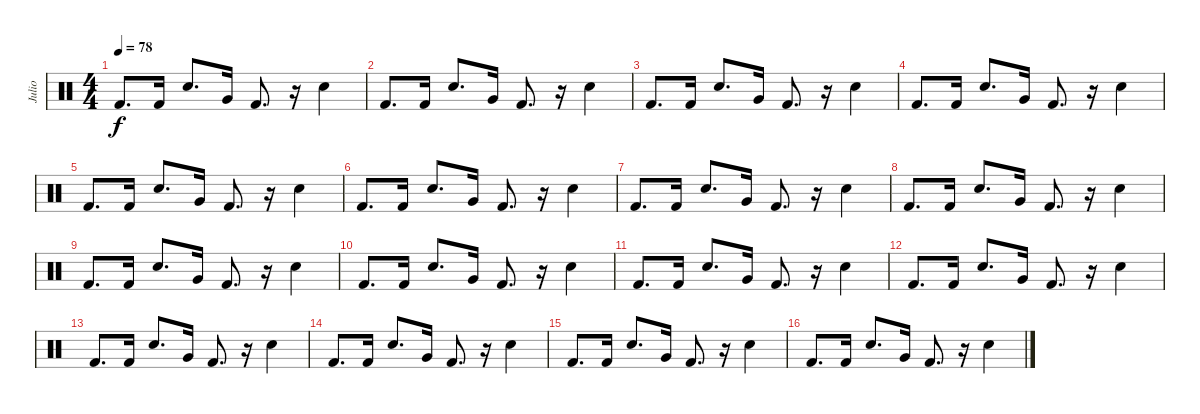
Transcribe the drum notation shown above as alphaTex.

\track ("Julio" "Julio") {instrument percussion}
\staff {score}
\articulation defaults
\ts (4 4)
\tempo 78
\clef neutral
\ks c "Kick (hit) 2".8{d dy f} "Kick (hit) 2".16 "Electric Snare (hit)".8{d} "Very Low Tom (hit)".16 "Kick (hit) 2".8{d}
r.16 "Electric Snare (hit)".4 |
"Kick (hit) 2".8{d} "Kick (hit) 2".16 "Electric Snare (hit)".8{d} "Very Low Tom (hit)".16 "Kick (hit) 2".8{d} r.16 "Electric Snare (hit)".4 |
"Kick (hit) 2".8{d} "Kick (hit) 2".16 "Electric Snare (hit)".8{d} "Very Low Tom (hit)".16 "Kick (hit) 2".8{d} r.16 "Electric Snare (hit)".4 |
"Kick (hit) 2".8{d} "Kick (hit) 2".16 "Electric Snare (hit)".8{d} "Very Low Tom (hit)".16 "Kick (hit) 2".8{d} r.16 "Electric Snare (hit)".4 |
"Kick (hit) 2".8{d} "Kick (hit) 2".16 "Electric Snare (hit)".8{d} "Very Low Tom (hit)".16 "Kick (hit) 2".8{d} r.16 "Electric Snare (hit)".4 |
"Kick (hit) 2".8{d} "Kick (hit) 2".16 "Electric Snare (hit)".8{d} "Very Low Tom (hit)".16 "Kick (hit) 2".8{d} r.16 "Electric Snare (hit)".4 |
"Kick (hit) 2".8{d} "Kick (hit) 2".16 "Electric Snare (hit)".8{d} "Very Low Tom (hit)".16 "Kick (hit) 2".8{d} r.16 "Electric Snare (hit)".4 |
"Kick (hit) 2".8{d} "Kick (hit) 2".16 "Electric Snare (hit)".8{d} "Very Low Tom (hit)".16 "Kick (hit) 2".8{d} r.16 "Electric Snare (hit)".4 |
"Kick (hit) 2".8{d} "Kick (hit) 2".16 "Electric Snare (hit)".8{d} "Very Low Tom (hit)".16 "Kick (hit) 2".8{d} r.16 "Electric Snare (hit)".4 |
"Kick (hit) 2".8{d} "Kick (hit) 2".16 "Electric Snare (hit)".8{d} "Very Low Tom (hit)".16 "Kick (hit) 2".8{d} r.16 "Electric Snare (hit)".4 |
"Kick (hit) 2".8{d} "Kick (hit) 2".16 "Electric Snare (hit)".8{d} "Very Low Tom (hit)".16 "Kick (hit) 2".8{d} r.16 "Electric Snare (hit)".4 |
"Kick (hit) 2".8{d} "Kick (hit) 2".16 "Electric Snare (hit)".8{d} "Very Low Tom (hit)".16 "Kick (hit) 2".8{d} r.16 "Electric Snare (hit)".4 |
"Kick (hit) 2".8{d} "Kick (hit) 2".16 "Electric Snare (hit)".8{d} "Very Low Tom (hit)".16 "Kick (hit) 2".8{d} r.16 "Electric Snare (hit)".4 |
"Kick (hit) 2".8{d} "Kick (hit) 2".16 "Electric Snare (hit)".8{d} "Very Low Tom (hit)".16 "Kick (hit) 2".8{d} r.16 "Electric Snare (hit)".4 |
"Kick (hit) 2".8{d} "Kick (hit) 2".16 "Electric Snare (hit)".8{d} "Very Low Tom (hit)".16 "Kick (hit) 2".8{d} r.16 "Electric Snare (hit)".4 |
"Kick (hit) 2".8{d} "Kick (hit) 2".16 "Electric Snare (hit)".8{d} "Very Low Tom (hit)".16 "Kick (hit) 2".8{d} r.16 "Electric Snare (hit)".4
